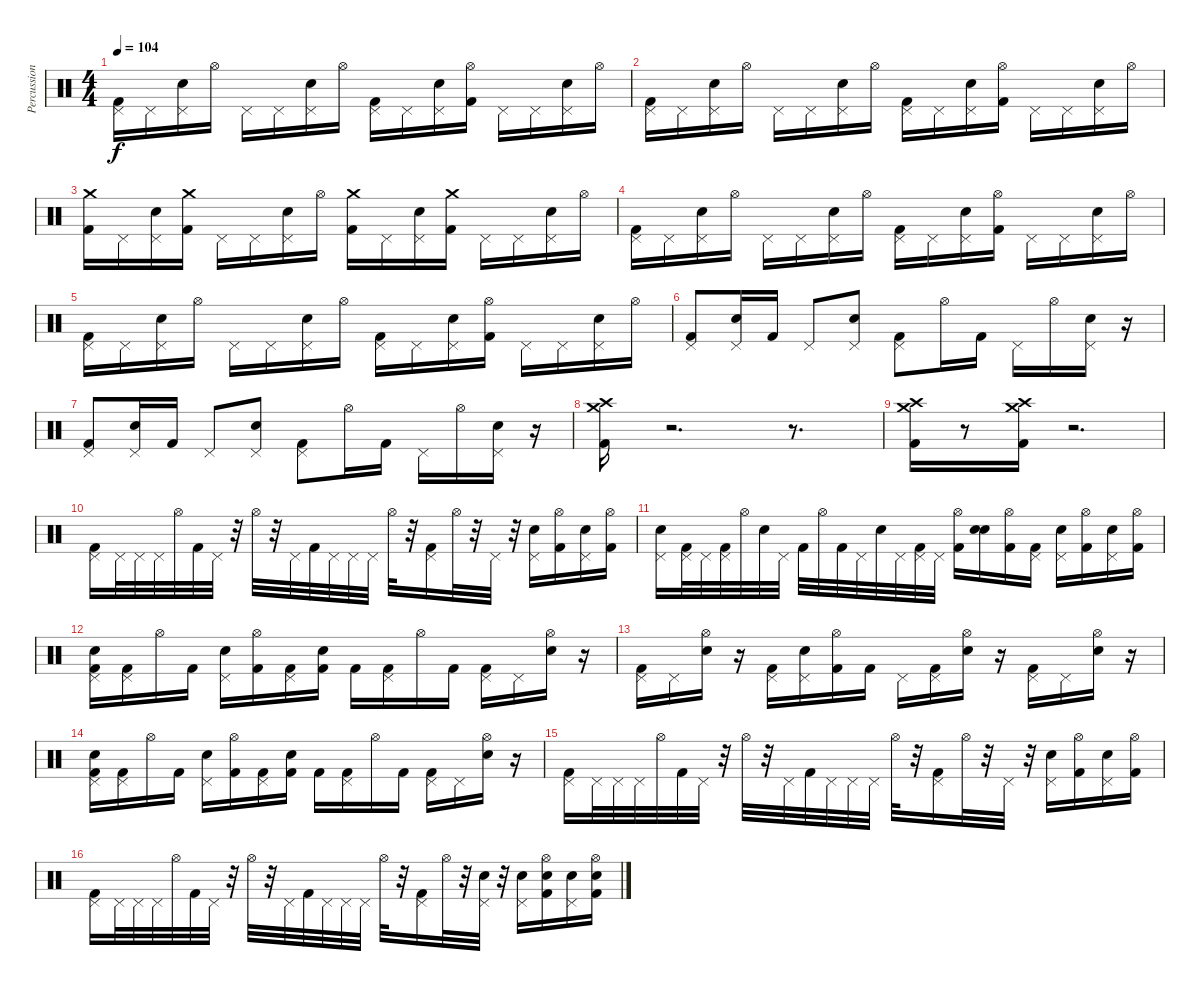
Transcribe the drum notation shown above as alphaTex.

\track ("Percussion" "Percussion") {instrument percussion}
\staff {score}
\articulation defaults
\ts (4 4)
\tempo 104
\clef neutral
\ks c
("Pedal Hi-Hat (hit)" "Kick (hit) 2").16{dy f} "Pedal Hi-Hat (hit)".16 ("Pedal Hi-Hat (hit)" "Snare (hit) 2").16 "Hi-Hat (open)".16 "Pedal Hi-Hat (hit)".16 "Pedal Hi-Hat (hit)".16 ("Pedal Hi-Hat (hit)" "Snare (hit) 2").16 "Hi-Hat (open)".16 ("Pedal Hi-Hat (hit)" "Kick (hit) 2").16 "Pedal Hi-Hat (hit)".16 ("Pedal Hi-Hat (hit)" "Snare (hit) 2").16 ("Hi-Hat (open)" "Kick (hit) 2").16 "Pedal Hi-Hat (hit)".16 "Pedal Hi-Hat (hit)".16 ("Pedal Hi-Hat (hit)" "Snare (hit) 2").16 "Hi-Hat (open)".16 |
("Pedal Hi-Hat (hit)" "Kick (hit) 2").16 "Pedal Hi-Hat (hit)".16 ("Pedal Hi-Hat (hit)" "Snare (hit) 2").16 "Hi-Hat (open)".16 "Pedal Hi-Hat (hit)".16 "Pedal Hi-Hat (hit)".16 ("Pedal Hi-Hat (hit)" "Snare (hit) 2").16 "Hi-Hat (open)".16 ("Pedal Hi-Hat (hit)" "Kick (hit) 2").16 "Pedal Hi-Hat (hit)".16 ("Pedal Hi-Hat (hit)" "Snare (hit) 2").16 ("Hi-Hat (open)" "Kick (hit) 2").16 "Pedal Hi-Hat (hit)".16 "Pedal Hi-Hat (hit)".16 ("Pedal Hi-Hat (hit)" "Snare (hit) 2").16 "Hi-Hat (open)".16 |
("Crash medium (hit)" "Kick (hit) 2").16 "Pedal Hi-Hat (hit)".16 ("Pedal Hi-Hat (hit)" "Snare (hit) 2").16 ("Crash medium (hit)" "Kick (hit) 2").16 "Pedal Hi-Hat (hit)".16 "Pedal Hi-Hat (hit)".16 ("Pedal Hi-Hat (hit)" "Snare (hit) 2").16 "Hi-Hat (open)".16 ("Crash medium (hit)" "Kick (hit) 2").16 "Pedal Hi-Hat (hit)".16 ("Pedal Hi-Hat (hit)" "Snare (hit) 2").16 ("Crash medium (hit)" "Kick (hit) 2").16 "Pedal Hi-Hat (hit)".16 "Pedal Hi-Hat (hit)".16 ("Pedal Hi-Hat (hit)" "Snare (hit) 2").16 "Hi-Hat (open)".16 |
("Pedal Hi-Hat (hit)" "Kick (hit) 2").16 "Pedal Hi-Hat (hit)".16 ("Pedal Hi-Hat (hit)" "Snare (hit) 2").16 "Hi-Hat (open)".16 "Pedal Hi-Hat (hit)".16 "Pedal Hi-Hat (hit)".16 ("Pedal Hi-Hat (hit)" "Snare (hit) 2").16 "Hi-Hat (open)".16 ("Pedal Hi-Hat (hit)" "Kick (hit) 2").16 "Pedal Hi-Hat (hit)".16 ("Pedal Hi-Hat (hit)" "Snare (hit) 2").16 ("Hi-Hat (open)" "Kick (hit) 2").16 "Pedal Hi-Hat (hit)".16 "Pedal Hi-Hat (hit)".16 ("Pedal Hi-Hat (hit)" "Snare (hit) 2").16 "Hi-Hat (open)".16 |
("Pedal Hi-Hat (hit)" "Kick (hit) 2").16 "Pedal Hi-Hat (hit)".16 ("Pedal Hi-Hat (hit)" "Snare (hit) 2").16 "Hi-Hat (open)".16 "Pedal Hi-Hat (hit)".16 "Pedal Hi-Hat (hit)".16 ("Pedal Hi-Hat (hit)" "Snare (hit) 2").16 "Hi-Hat (open)".16 ("Pedal Hi-Hat (hit)" "Kick (hit) 2").16 "Pedal Hi-Hat (hit)".16 ("Pedal Hi-Hat (hit)" "Snare (hit) 2").16 ("Hi-Hat (open)" "Kick (hit) 2").16 "Pedal Hi-Hat (hit)".16 "Pedal Hi-Hat (hit)".16 ("Pedal Hi-Hat (hit)" "Snare (hit) 2").16 "Hi-Hat (open)".16 |
("Pedal Hi-Hat (hit)" "Kick (hit) 2").8 ("Pedal Hi-Hat (hit)" "Snare (hit) 2").16 "Kick (hit) 2".16 "Pedal Hi-Hat (hit)".8 ("Pedal Hi-Hat (hit)" "Snare (hit) 2").8 ("Pedal Hi-Hat (hit)" "Kick (hit) 2").8 "Hi-Hat (open)".16 "Kick (hit) 2".16 "Pedal Hi-Hat (hit)".16 "Hi-Hat (open)".16 ("Pedal Hi-Hat (hit)" "Snare (hit) 2").16 r.16 |
("Pedal Hi-Hat (hit)" "Kick (hit) 2").8 ("Pedal Hi-Hat (hit)" "Snare (hit) 2").16 "Kick (hit) 2".16 "Pedal Hi-Hat (hit)".8 ("Pedal Hi-Hat (hit)" "Snare (hit) 2").8 ("Pedal Hi-Hat (hit)" "Kick (hit) 2").8 "Hi-Hat (open)".16 "Kick (hit) 2".16 "Pedal Hi-Hat (hit)".16 "Hi-Hat (open)".16 ("Pedal Hi-Hat (hit)" "Snare (hit) 2").16 r.16 |
("Crash medium (hit)" "Crash high (hit)" "Kick (hit) 2").16 r.2{d} r.8{d} |
("Crash medium (hit)" "Crash high (hit)" "Kick (hit) 2").16 r.8 ("Crash medium (hit)" "Crash high (hit)" "Kick (hit) 2").16 r.2{d} |
("Pedal Hi-Hat (hit)" "Kick (hit) 2").16 "Pedal Hi-Hat (hit)".32 "Pedal Hi-Hat (hit)".32 "Pedal Hi-Hat (hit)".32 "Hi-Hat (open)".32 "Kick (hit) 2".32 "Pedal Hi-Hat (hit)".32 r.32 "Hi-Hat (open)".32 r.32 "Pedal Hi-Hat (hit)".32 "Kick (hit) 2".32 "Pedal Hi-Hat (hit)".32 "Pedal Hi-Hat (hit)".32 "Pedal Hi-Hat (hit)".32 "Hi-Hat (open)".32 r.32 ("Pedal Hi-Hat (hit)" "Kick (hit) 2").16 "Hi-Hat (open)".32 r.32 "Pedal Hi-Hat (hit)".32 r.32 ("Pedal Hi-Hat (hit)" "Snare (hit) 2").16 ("Hi-Hat (open)" "Kick (hit) 2").16 ("Pedal Hi-Hat (hit)" "Snare (hit) 2").16 ("Hi-Hat (open)" "Kick (hit) 2").16 |
("Pedal Hi-Hat (hit)" "Snare (hit) 2").16 ("Pedal Hi-Hat (hit)" "Kick (hit) 2").32 "Pedal Hi-Hat (hit)".32 ("Pedal Hi-Hat (hit)" "Kick (hit) 2").32 "Hi-Hat (open)".32 "Snare (hit) 2".32 "Pedal Hi-Hat (hit)".32 "Kick (hit) 2".32 "Hi-Hat (open)".32 "Kick (hit) 2".32 "Pedal Hi-Hat (hit)".32 "Snare (hit) 2".32 "Pedal Hi-Hat (hit)".32 ("Pedal Hi-Hat (hit)" "Kick (hit) 2").32 "Pedal Hi-Hat (hit)".32 ("Hi-Hat (open)" "Kick (hit) 2").16 ("Electric Snare (hit)" "Snare (hit) 2").16 ("Hi-Hat (open)" "Kick (hit) 2").16 ("Pedal Hi-Hat (hit)" "Kick (hit) 2").16 ("Pedal Hi-Hat (hit)" "Snare (hit) 2").16 ("Hi-Hat (open)" "Kick (hit) 2").16 ("Pedal Hi-Hat (hit)" "Snare (hit) 2").16 ("Hi-Hat (open)" "Kick (hit) 2").16 |
("Pedal Hi-Hat (hit)" "Snare (hit) 2" "Kick (hit) 2").16 ("Pedal Hi-Hat (hit)" "Kick (hit) 2").16 "Hi-Hat (open)".16 "Kick (hit) 2".16 ("Pedal Hi-Hat (hit)" "Snare (hit) 2").16 ("Hi-Hat (open)" "Kick (hit) 2").16 ("Pedal Hi-Hat (hit)" "Kick (hit) 2").16 ("Snare (hit) 2" "Kick (hit) 2").16 "Kick (hit) 2".16 ("Pedal Hi-Hat (hit)" "Kick (hit) 2").16 "Hi-Hat (open)".16 "Kick (hit) 2".16 ("Pedal Hi-Hat (hit)" "Kick (hit) 2").16 "Pedal Hi-Hat (hit)".16 ("Hi-Hat (open)" "Snare (hit) 2").16 r.16 |
("Pedal Hi-Hat (hit)" "Kick (hit) 2").16 "Pedal Hi-Hat (hit)".16 ("Hi-Hat (open)" "Snare (hit) 2").16 r.16 ("Pedal Hi-Hat (hit)" "Kick (hit) 2").16 ("Pedal Hi-Hat (hit)" "Snare (hit) 2").16 ("Hi-Hat (open)" "Kick (hit) 2").16 "Kick (hit) 2".16 "Pedal Hi-Hat (hit)".16 ("Pedal Hi-Hat (hit)" "Kick (hit) 2").16 ("Hi-Hat (open)" "Snare (hit) 2").16 r.16 ("Pedal Hi-Hat (hit)" "Kick (hit) 2").16 "Pedal Hi-Hat (hit)".16 ("Hi-Hat (open)" "Snare (hit) 2").16 r.16 |
("Pedal Hi-Hat (hit)" "Snare (hit) 2" "Kick (hit) 2").16 ("Pedal Hi-Hat (hit)" "Kick (hit) 2").16 "Hi-Hat (open)".16 "Kick (hit) 2".16 ("Pedal Hi-Hat (hit)" "Snare (hit) 2").16 ("Hi-Hat (open)" "Kick (hit) 2").16 ("Pedal Hi-Hat (hit)" "Kick (hit) 2").16 ("Snare (hit) 2" "Kick (hit) 2").16 "Kick (hit) 2".16 ("Pedal Hi-Hat (hit)" "Kick (hit) 2").16 "Hi-Hat (open)".16 "Kick (hit) 2".16 ("Pedal Hi-Hat (hit)" "Kick (hit) 2").16 "Pedal Hi-Hat (hit)".16 ("Hi-Hat (open)" "Snare (hit) 2").16 r.16 |
("Pedal Hi-Hat (hit)" "Kick (hit) 2").16 "Pedal Hi-Hat (hit)".32 "Pedal Hi-Hat (hit)".32 "Pedal Hi-Hat (hit)".32 "Hi-Hat (open)".32 "Kick (hit) 2".32 "Pedal Hi-Hat (hit)".32 r.32 "Hi-Hat (open)".32 r.32 "Pedal Hi-Hat (hit)".32 "Kick (hit) 2".32 "Pedal Hi-Hat (hit)".32 "Pedal Hi-Hat (hit)".32 "Pedal Hi-Hat (hit)".32 "Hi-Hat (open)".32 r.32 ("Pedal Hi-Hat (hit)" "Kick (hit) 2").16 "Hi-Hat (open)".32 r.32 "Pedal Hi-Hat (hit)".32 r.32 ("Pedal Hi-Hat (hit)" "Snare (hit) 2").16 ("Hi-Hat (open)" "Kick (hit) 2").16 ("Pedal Hi-Hat (hit)" "Snare (hit) 2").16 ("Hi-Hat (open)" "Kick (hit) 2").16 |
("Pedal Hi-Hat (hit)" "Kick (hit) 2").16 "Pedal Hi-Hat (hit)".32 "Pedal Hi-Hat (hit)".32 "Pedal Hi-Hat (hit)".32 "Hi-Hat (open)".32 "Kick (hit) 2".32 "Pedal Hi-Hat (hit)".32 r.32 "Hi-Hat (open)".32 r.32 "Pedal Hi-Hat (hit)".32 "Kick (hit) 2".32 "Pedal Hi-Hat (hit)".32 "Pedal Hi-Hat (hit)".32 "Pedal Hi-Hat (hit)".32 "Hi-Hat (open)".32 r.32 ("Pedal Hi-Hat (hit)" "Kick (hit) 2").16 "Hi-Hat (open)".32 r.32 ("Pedal Hi-Hat (hit)" "Snare (hit) 2").32 r.32 ("Pedal Hi-Hat (hit)" "Snare (hit) 2").16 ("Hi-Hat (open)" "Snare (hit) 2" "Kick (hit) 2").16 ("Pedal Hi-Hat (hit)" "Snare (hit) 2").16 ("Hi-Hat (open)" "Snare (hit) 2" "Kick (hit) 2").16
